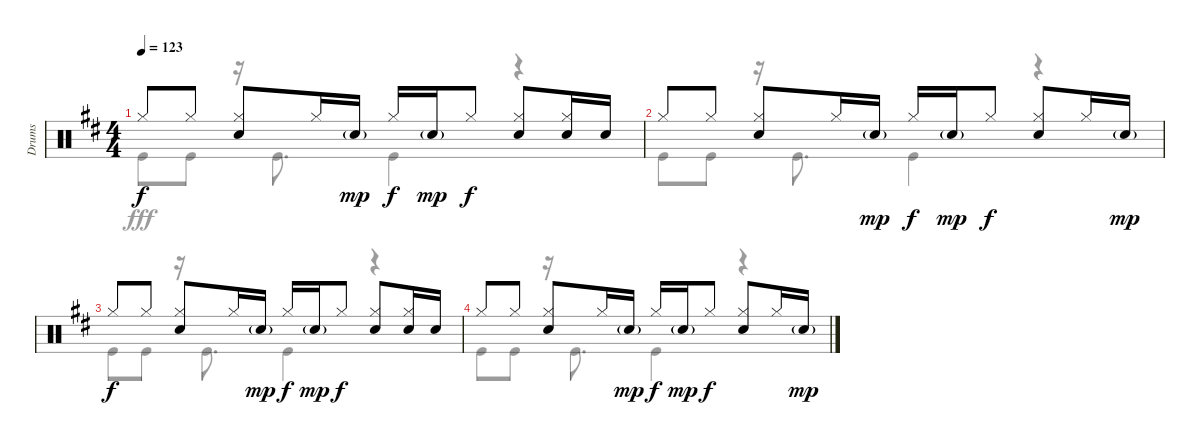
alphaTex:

\track ("Drums" "Drums") {instrument percussion}
\staff {score}
\articulation defaults
\voice
\ts (4 4)
\tempo 123
\clef neutral
\ks d "Hi-Hat (closed)".8{dy f} "Hi-Hat (closed)".8
("Hi-Hat (closed)" "Snare (hit) 2").8 "Hi-Hat (closed)".16 "Snare (hit) 2"{g}.16{dy mp} "Hi-Hat (closed)".16{dy f} "Snare (hit) 2"{g}.16{dy mp} "Hi-Hat (closed)".8{dy f} ("Hi-Hat (closed)" "Snare (hit) 2").8 ("Hi-Hat (closed)" "Snare (hit) 2").16 "Snare (hit) 2".16 |
"Hi-Hat (closed)".8 "Hi-Hat (closed)".8 ("Hi-Hat (closed)" "Snare (hit) 2").8 "Hi-Hat (closed)".16 "Snare (hit) 2"{g}.16{dy mp} "Hi-Hat (closed)".16{dy f} "Snare (hit) 2"{g}.16{dy mp} "Hi-Hat (closed)".8{dy f} ("Hi-Hat (closed)" "Snare (hit) 2").8 "Hi-Hat (closed)".16 "Snare (hit) 2"{g}.16{dy mp} |
"Hi-Hat (closed)".8{dy f} "Hi-Hat (closed)".8 ("Hi-Hat (closed)" "Snare (hit) 2").8 "Hi-Hat (closed)".16 "Snare (hit) 2"{g}.16{dy mp} "Hi-Hat (closed)".16{dy f} "Snare (hit) 2"{g}.16{dy mp} "Hi-Hat (closed)".8{dy f} ("Hi-Hat (closed)" "Snare (hit) 2").8 ("Hi-Hat (closed)" "Snare (hit) 2").16 "Snare (hit) 2".16 |
"Hi-Hat (closed)".8 "Hi-Hat (closed)".8 ("Hi-Hat (closed)" "Snare (hit) 2").8 "Hi-Hat (closed)".16 "Snare (hit) 2"{g}.16{dy mp} "Hi-Hat (closed)".16{dy f} "Snare (hit) 2"{g}.16{dy mp} "Hi-Hat (closed)".8{dy f} ("Hi-Hat (closed)" "Snare (hit) 2").8 "Hi-Hat (closed)".16 "Snare (hit) 2"{g}.16{dy mp}
\voice
\clef neutral
\ottava regular
\simile none
\ks d "Kick (hit)".8{dy fff} "Kick (hit)".8
r.16 "Kick (hit)".8{d} "Kick (hit)".4 r.4 |
"Kick (hit)".8 "Kick (hit)".8 r.16 "Kick (hit)".8{d} "Kick (hit)".4 r.4 |
"Kick (hit)".8 "Kick (hit)".8 r.16 "Kick (hit)".8{d} "Kick (hit)".4 r.4 |
"Kick (hit)".8 "Kick (hit)".8 r.16 "Kick (hit)".8{d} "Kick (hit)".4 r.4
